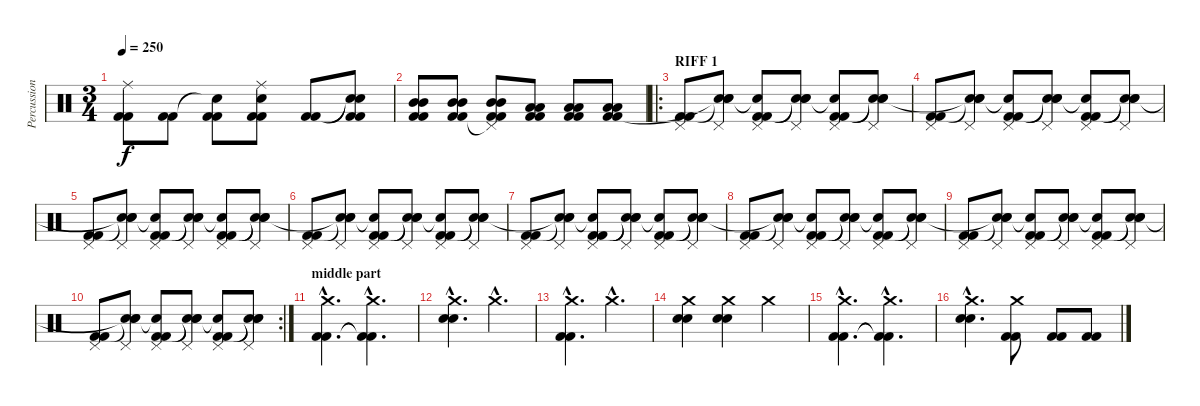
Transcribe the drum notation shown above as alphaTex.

\track ("Percussion" "Percussion") {instrument percussion}
\staff {score}
\articulation defaults
\ts (3 4)
\tempo 250
\clef neutral
\ks c
("Ride (middle)" "Kick (hit) 2" "Kick (hit) 2").8{dy f} ("Kick (hit) 2" "Kick (hit) 2").8 ("Snare (hit)"{t} "Kick (hit) 2" "Kick (hit) 2").8 ("Snare (hit) 2" "Ride (middle)" "Kick (hit) 2" "Kick (hit) 2").8 ("Kick (hit) 2" "Kick (hit) 2").8 ("Snare (hit)"{t} "Snare (hit)"{t} "Kick (hit) 2" "Kick (hit) 2").8 |
("Mid Tom (hit)" "Mid Tom (hit)" "Kick (hit) 2" "Kick (hit) 2").8 ("Mid Tom (hit)" "Mid Tom (hit)" "Kick (hit) 2" "Kick (hit) 2").8 ("Mid Tom (hit)" "Mid Tom (hit)" "Pedal Hi-Hat (hit)"{t} "Kick (hit) 2" "Kick (hit) 2").8 ("Low Floor Tom (hit)" "Low Floor Tom (hit)" "Kick (hit) 2" "Kick (hit) 2").8 ("Low Floor Tom (hit)" "Low Floor Tom (hit)" "Kick (hit) 2" "Kick (hit) 2").8 ("Low Floor Tom (hit)" "Low Floor Tom (hit)" "Kick (hit) 2" "Kick (hit) 2").8 |
\ro
\section ("" "RIFF 1")
("Pedal Hi-Hat (hit)" "Kick (hit) 2" "Kick (hit) 2").8 ("Snare (hit) 2" "Pedal Hi-Hat (hit)" "Snare (hit)"{t} "Snare (hit)"{t}).8 ("Snare (hit)"{t} "Pedal Hi-Hat (hit)" "Kick (hit) 2" "Kick (hit) 2").8 ("Snare (hit) 2" "Pedal Hi-Hat (hit)" "Snare (hit)"{t} "Snare (hit)"{t}).8 ("Snare (hit)"{t} "Pedal Hi-Hat (hit)" "Kick (hit) 2" "Kick (hit) 2").8 ("Snare (hit) 2" "Pedal Hi-Hat (hit)" "Snare (hit)"{t} "Snare (hit)"{t}).8 |
("Pedal Hi-Hat (hit)" "Kick (hit) 2" "Kick (hit) 2").8 ("Snare (hit) 2" "Pedal Hi-Hat (hit)" "Snare (hit)"{t} "Snare (hit)"{t}).8 ("Snare (hit)"{t} "Pedal Hi-Hat (hit)" "Kick (hit) 2" "Kick (hit) 2").8 ("Snare (hit) 2" "Pedal Hi-Hat (hit)" "Snare (hit)"{t} "Snare (hit)"{t}).8 ("Snare (hit)"{t} "Pedal Hi-Hat (hit)" "Kick (hit) 2" "Kick (hit) 2").8 ("Snare (hit) 2" "Pedal Hi-Hat (hit)" "Snare (hit)"{t} "Snare (hit)"{t}).8 |
("Pedal Hi-Hat (hit)" "Kick (hit) 2" "Kick (hit) 2").8 ("Snare (hit) 2" "Pedal Hi-Hat (hit)" "Snare (hit)"{t} "Snare (hit)"{t}).8 ("Snare (hit)"{t} "Pedal Hi-Hat (hit)" "Kick (hit) 2" "Kick (hit) 2").8 ("Snare (hit) 2" "Pedal Hi-Hat (hit)" "Snare (hit)"{t} "Snare (hit)"{t}).8 ("Snare (hit)"{t} "Pedal Hi-Hat (hit)" "Kick (hit) 2" "Kick (hit) 2").8 ("Snare (hit) 2" "Pedal Hi-Hat (hit)" "Snare (hit)"{t} "Snare (hit)"{t}).8 |
("Pedal Hi-Hat (hit)" "Kick (hit) 2" "Kick (hit) 2").8 ("Snare (hit) 2" "Pedal Hi-Hat (hit)" "Snare (hit)"{t} "Snare (hit)"{t}).8 ("Snare (hit)"{t} "Pedal Hi-Hat (hit)" "Kick (hit) 2" "Kick (hit) 2").8 ("Snare (hit) 2" "Pedal Hi-Hat (hit)" "Snare (hit)"{t} "Snare (hit)"{t}).8 ("Snare (hit)"{t} "Pedal Hi-Hat (hit)" "Kick (hit) 2" "Kick (hit) 2").8 ("Snare (hit) 2" "Pedal Hi-Hat (hit)" "Snare (hit)"{t} "Snare (hit)"{t}).8 |
("Pedal Hi-Hat (hit)" "Kick (hit) 2" "Kick (hit) 2").8 ("Snare (hit) 2" "Pedal Hi-Hat (hit)" "Snare (hit)"{t} "Snare (hit)"{t}).8 ("Snare (hit)"{t} "Pedal Hi-Hat (hit)" "Kick (hit) 2" "Kick (hit) 2").8 ("Snare (hit) 2" "Pedal Hi-Hat (hit)" "Snare (hit)"{t} "Snare (hit)"{t}).8 ("Snare (hit)"{t} "Pedal Hi-Hat (hit)" "Kick (hit) 2" "Kick (hit) 2").8 ("Snare (hit) 2" "Pedal Hi-Hat (hit)" "Snare (hit)"{t} "Snare (hit)"{t}).8 |
("Pedal Hi-Hat (hit)" "Kick (hit) 2" "Kick (hit) 2").8 ("Snare (hit) 2" "Pedal Hi-Hat (hit)" "Snare (hit)"{t} "Snare (hit)"{t}).8 ("Snare (hit)"{t} "Pedal Hi-Hat (hit)" "Kick (hit) 2" "Kick (hit) 2").8 ("Snare (hit) 2" "Pedal Hi-Hat (hit)" "Snare (hit)"{t} "Snare (hit)"{t}).8 ("Snare (hit)"{t} "Pedal Hi-Hat (hit)" "Kick (hit) 2" "Kick (hit) 2").8 ("Snare (hit) 2" "Pedal Hi-Hat (hit)" "Snare (hit)"{t} "Snare (hit)"{t}).8 |
("Pedal Hi-Hat (hit)" "Kick (hit) 2" "Kick (hit) 2").8 ("Snare (hit) 2" "Pedal Hi-Hat (hit)" "Snare (hit)"{t} "Snare (hit)"{t}).8 ("Snare (hit)"{t} "Pedal Hi-Hat (hit)" "Kick (hit) 2" "Kick (hit) 2").8 ("Snare (hit) 2" "Pedal Hi-Hat (hit)" "Snare (hit)"{t} "Snare (hit)"{t}).8 ("Snare (hit)"{t} "Pedal Hi-Hat (hit)" "Kick (hit) 2" "Kick (hit) 2").8 ("Snare (hit) 2" "Pedal Hi-Hat (hit)" "Snare (hit)"{t} "Snare (hit)"{t}).8 |
\rc 2
("Pedal Hi-Hat (hit)" "Kick (hit) 2" "Kick (hit) 2").8 ("Snare (hit) 2" "Pedal Hi-Hat (hit)" "Snare (hit)"{t} "Snare (hit)"{t}).8 ("Snare (hit)"{t} "Pedal Hi-Hat (hit)" "Kick (hit) 2" "Kick (hit) 2").8 ("Snare (hit) 2" "Pedal Hi-Hat (hit)" "Snare (hit)"{t} "Snare (hit)"{t}).8 ("Snare (hit)"{t} "Pedal Hi-Hat (hit)" "Kick (hit) 2" "Kick (hit) 2").8 ("Snare (hit) 2" "Pedal Hi-Hat (hit)" "Snare (hit)"{t} "Snare (hit)"{t}).8 |
\section ("" "middle part")
("Crash medium (hit)"{hac} "Kick (hit) 2"{hac} "Kick (hit) 2"{hac}).4{d} ("Crash medium (hit)"{hac} "Kick (hit) 2"{hac t} "Kick (hit) 2"{hac t}).4{d} |
("Snare (hit) 2"{hac} "Snare (hit) 2"{hac} "Crash medium (hit)"{hac}).4{d} "Crash medium (hit)"{hac}.4{d} |
("Crash medium (hit)"{hac} "Kick (hit) 2"{hac} "Kick (hit) 2"{hac}).4{d} "Crash medium (hit)"{hac}.4{d} |
("Snare (hit) 2" "Snare (hit) 2" "Crash medium (hit)").4 ("Snare (hit) 2" "Snare (hit) 2" "Crash medium (hit)").4 "Crash medium (hit)".4 |
("Crash medium (hit)"{hac} "Kick (hit) 2"{hac} "Kick (hit) 2"{hac}).4{d} ("Crash medium (hit)"{hac} "Kick (hit) 2"{hac t} "Kick (hit) 2"{hac t}).4{d} |
("Snare (hit) 2"{hac} "Snare (hit) 2"{hac} "Crash medium (hit)"{hac}).4{d} ("Crash medium (hit)" "Kick (hit) 2" "Kick (hit) 2").8 ("Kick (hit) 2" "Kick (hit) 2").8 ("Kick (hit) 2" "Kick (hit) 2").8
